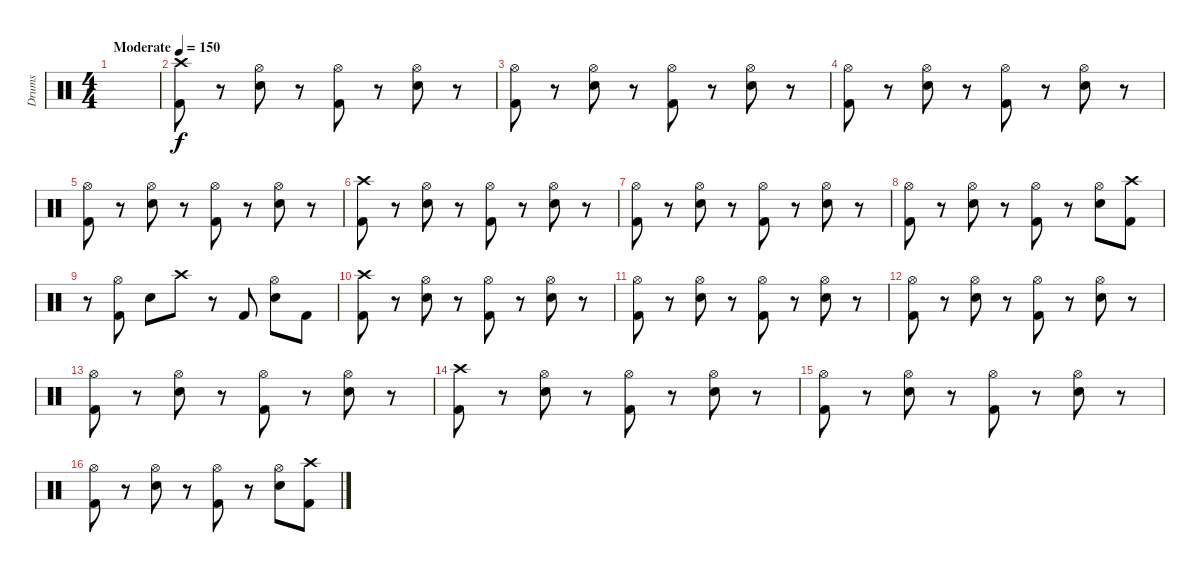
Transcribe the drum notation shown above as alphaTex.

\track ("Drums" "Drums") {instrument percussion}
\staff {score}
\articulation defaults
\ts (4 4)
\tempo (150 "Moderate")
\clef neutral
\ks c
|
("Crash high (hit)" "Kick (hit) 2").8 r.8 ("Hi-Hat (open)" "Snare (hit) 2").8 r.8 ("Hi-Hat (open)" "Kick (hit) 2").8 r.8 ("Hi-Hat (open)" "Snare (hit) 2").8 r.8 |
("Hi-Hat (open)" "Kick (hit) 2").8 r.8 ("Hi-Hat (open)" "Snare (hit) 2").8 r.8 ("Hi-Hat (open)" "Kick (hit) 2").8 r.8 ("Hi-Hat (open)" "Snare (hit) 2").8 r.8 |
("Hi-Hat (open)" "Kick (hit) 2").8 r.8 ("Hi-Hat (open)" "Snare (hit) 2").8 r.8 ("Hi-Hat (open)" "Kick (hit) 2").8 r.8 ("Hi-Hat (open)" "Snare (hit) 2").8 r.8 |
("Hi-Hat (open)" "Kick (hit) 2").8 r.8 ("Hi-Hat (open)" "Snare (hit) 2").8 r.8 ("Hi-Hat (open)" "Kick (hit) 2").8 r.8 ("Hi-Hat (open)" "Snare (hit) 2").8 r.8 |
("Crash high (hit)" "Kick (hit) 2").8 r.8 ("Hi-Hat (open)" "Snare (hit) 2").8 r.8 ("Hi-Hat (open)" "Kick (hit) 2").8 r.8 ("Hi-Hat (open)" "Snare (hit) 2").8 r.8 |
("Hi-Hat (open)" "Kick (hit) 2").8 r.8 ("Hi-Hat (open)" "Snare (hit) 2").8 r.8 ("Hi-Hat (open)" "Kick (hit) 2").8 r.8 ("Hi-Hat (open)" "Snare (hit) 2").8 r.8 |
("Hi-Hat (open)" "Kick (hit) 2").8 r.8 ("Hi-Hat (open)" "Snare (hit) 2").8 r.8 ("Hi-Hat (open)" "Kick (hit) 2").8 r.8 ("Hi-Hat (open)" "Snare (hit) 2").8 ("Crash high (hit)" "Kick (hit) 2").8 |
r.8 ("Hi-Hat (open)" "Kick (hit) 2").8 "Snare (hit) 2".8 "Crash high (hit)".8 r.8 "Kick (hit) 2".8 ("Hi-Hat (open)" "Snare (hit) 2").8 "Kick (hit) 2".8 |
("Crash high (hit)" "Kick (hit) 2").8 r.8 ("Hi-Hat (open)" "Snare (hit) 2").8 r.8 ("Hi-Hat (open)" "Kick (hit) 2").8 r.8 ("Hi-Hat (open)" "Snare (hit) 2").8 r.8 |
("Hi-Hat (open)" "Kick (hit) 2").8 r.8 ("Hi-Hat (open)" "Snare (hit) 2").8 r.8 ("Hi-Hat (open)" "Kick (hit) 2").8 r.8 ("Hi-Hat (open)" "Snare (hit) 2").8 r.8 |
("Hi-Hat (open)" "Kick (hit) 2").8 r.8 ("Hi-Hat (open)" "Snare (hit) 2").8 r.8 ("Hi-Hat (open)" "Kick (hit) 2").8 r.8 ("Hi-Hat (open)" "Snare (hit) 2").8 r.8 |
("Hi-Hat (open)" "Kick (hit) 2").8 r.8 ("Hi-Hat (open)" "Snare (hit) 2").8 r.8 ("Hi-Hat (open)" "Kick (hit) 2").8 r.8 ("Hi-Hat (open)" "Snare (hit) 2").8 r.8 |
("Crash high (hit)" "Kick (hit) 2").8 r.8 ("Hi-Hat (open)" "Snare (hit) 2").8 r.8 ("Hi-Hat (open)" "Kick (hit) 2").8 r.8 ("Hi-Hat (open)" "Snare (hit) 2").8 r.8 |
("Hi-Hat (open)" "Kick (hit) 2").8 r.8 ("Hi-Hat (open)" "Snare (hit) 2").8 r.8 ("Hi-Hat (open)" "Kick (hit) 2").8 r.8 ("Hi-Hat (open)" "Snare (hit) 2").8 r.8 |
("Hi-Hat (open)" "Kick (hit) 2").8 r.8 ("Hi-Hat (open)" "Snare (hit) 2").8 r.8 ("Hi-Hat (open)" "Kick (hit) 2").8 r.8 ("Hi-Hat (open)" "Snare (hit) 2").8 ("Crash high (hit)" "Kick (hit) 2").8
